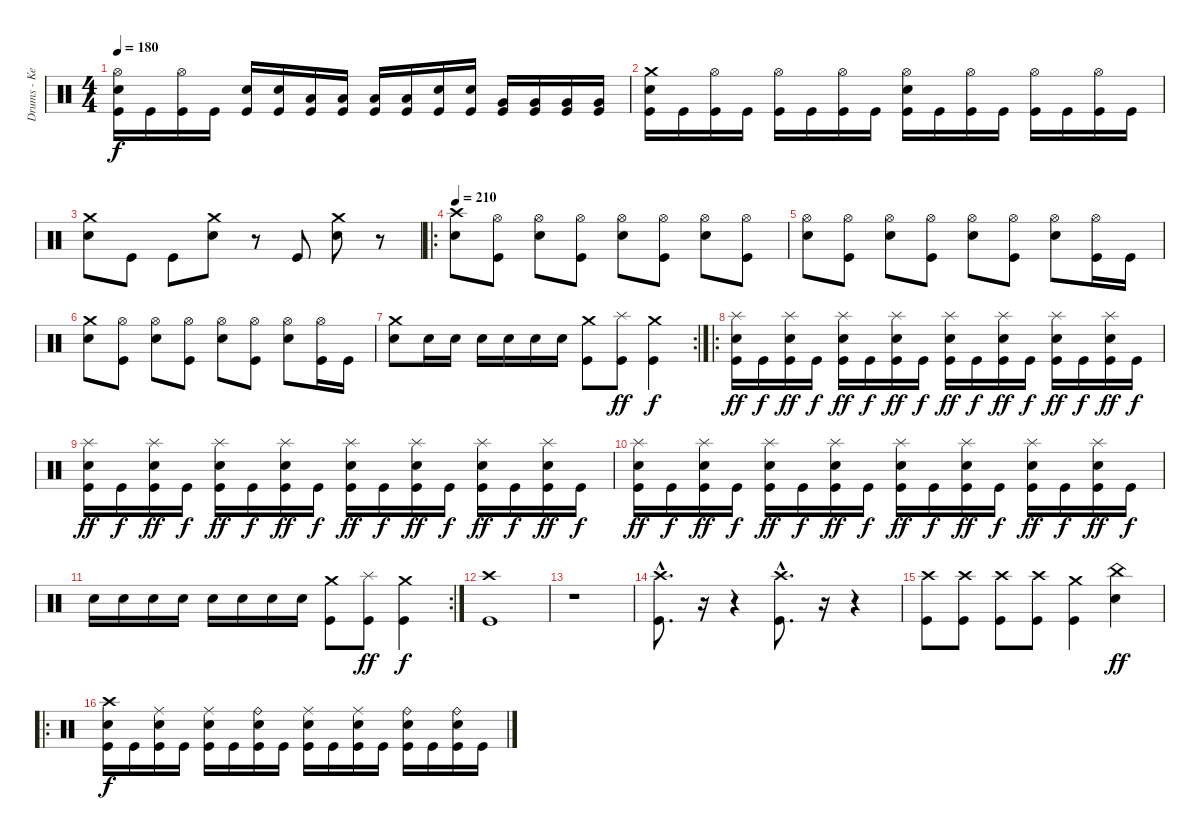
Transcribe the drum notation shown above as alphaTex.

\track ("Drums - Kevin" "Drums - Ke") {instrument percussion}
\staff {score}
\articulation defaults
\ts (4 4)
\tempo 180
\clef neutral
\ks c
("Hi-Hat (open)" "Electric Snare (hit)" "Kick (hit)").16{dy f} "Kick (hit)".16 ("Hi-Hat (open)" "Kick (hit)").16 "Kick (hit)".16 ("Electric Snare (hit)" "Kick (hit)").16 ("Electric Snare (hit)" "Kick (hit)").16 ("Low Tom (hit)" "Kick (hit)").16 ("Low Tom (hit)" "Kick (hit)").16 ("Low Tom (hit)" "Kick (hit)").16 ("Low Tom (hit)" "Kick (hit)").16 ("Electric Snare (hit)" "Kick (hit)").16 ("Electric Snare (hit)" "Kick (hit)").16 ("Very Low Tom (hit)" "Kick (hit)").16 ("Very Low Tom (hit)" "Kick (hit)").16 ("Very Low Tom (hit)" "Kick (hit)").16 ("Very Low Tom (hit)" "Kick (hit)").16 |
("Crash medium (hit)" "Electric Snare (hit)" "Kick (hit)").16 "Kick (hit)".16 ("Hi-Hat (open)" "Kick (hit)").16 "Kick (hit)".16 ("Hi-Hat (open)" "Kick (hit)").16 "Kick (hit)".16 ("Hi-Hat (open)" "Kick (hit)").16 "Kick (hit)".16 ("Hi-Hat (open)" "Electric Snare (hit)" "Kick (hit)").16 "Kick (hit)".16 ("Hi-Hat (open)" "Kick (hit)").16 "Kick (hit)".16 ("Hi-Hat (open)" "Kick (hit)").16 "Kick (hit)".16 ("Hi-Hat (open)" "Kick (hit)").16 "Kick (hit)".16 |
("Crash medium (hit)" "Electric Snare (hit)").8 "Kick (hit)".8 "Kick (hit)".8 ("Crash medium (hit)" "Electric Snare (hit)").8 r.8 "Kick (hit)".8 ("Crash medium (hit)" "Electric Snare (hit)").8 r.8 |
\ro
\tempo 210
("Crash high (hit)" "Electric Snare (hit)").8 ("Hi-Hat (open)" "Kick (hit)").8 ("Hi-Hat (open)" "Electric Snare (hit)").8 ("Hi-Hat (open)" "Kick (hit)").8 ("Hi-Hat (open)" "Electric Snare (hit)").8 ("Hi-Hat (open)" "Kick (hit)").8 ("Hi-Hat (open)" "Electric Snare (hit)").8 ("Hi-Hat (open)" "Kick (hit)").8 |
("Hi-Hat (open)" "Electric Snare (hit)").8 ("Hi-Hat (open)" "Kick (hit)").8 ("Hi-Hat (open)" "Electric Snare (hit)").8 ("Hi-Hat (open)" "Kick (hit)").8 ("Hi-Hat (open)" "Electric Snare (hit)").8 ("Hi-Hat (open)" "Kick (hit)").8 ("Hi-Hat (open)" "Electric Snare (hit)").8 ("Hi-Hat (open)" "Kick (hit)").16 "Kick (hit)".16 |
("Crash medium (hit)" "Electric Snare (hit)").8 ("Hi-Hat (open)" "Kick (hit)").8 ("Hi-Hat (open)" "Electric Snare (hit)").8 ("Hi-Hat (open)" "Kick (hit)").8 ("Hi-Hat (open)" "Electric Snare (hit)").8 ("Hi-Hat (open)" "Kick (hit)").8 ("Hi-Hat (open)" "Electric Snare (hit)").8 ("Hi-Hat (open)" "Kick (hit)").16 "Kick (hit)".16 |
\rc 2
("Crash medium (hit)" "Electric Snare (hit)").8 "Electric Snare (hit)".16 "Electric Snare (hit)".16 "Electric Snare (hit)".16 "Electric Snare (hit)".16 "Electric Snare (hit)".16 "Electric Snare (hit)".16 ("Crash medium (hit)" "Kick (hit)").8 ("Splash (hit)" "Kick (hit)").8{dy ff} ("Crash medium (hit)" "Kick (hit)").4{dy f} |
\ro
("Splash (hit)" "Electric Snare (hit)" "Kick (hit)").16{dy ff} "Kick (hit)".16{dy f} ("Splash (hit)" "Electric Snare (hit)" "Kick (hit)").16{dy ff} "Kick (hit)".16{dy f} ("Splash (hit)" "Electric Snare (hit)" "Kick (hit)").16{dy ff} "Kick (hit)".16{dy f} ("Splash (hit)" "Electric Snare (hit)" "Kick (hit)").16{dy ff} "Kick (hit)".16{dy f} ("Splash (hit)" "Electric Snare (hit)" "Kick (hit)").16{dy ff} "Kick (hit)".16{dy f} ("Splash (hit)" "Electric Snare (hit)" "Kick (hit)").16{dy ff} "Kick (hit)".16{dy f} ("Splash (hit)" "Electric Snare (hit)" "Kick (hit)").16{dy ff} "Kick (hit)".16{dy f} ("Splash (hit)" "Electric Snare (hit)" "Kick (hit)").16{dy ff} "Kick (hit)".16{dy f} |
("Splash (hit)" "Electric Snare (hit)" "Kick (hit)").16{dy ff} "Kick (hit)".16{dy f} ("Splash (hit)" "Electric Snare (hit)" "Kick (hit)").16{dy ff} "Kick (hit)".16{dy f} ("Splash (hit)" "Electric Snare (hit)" "Kick (hit)").16{dy ff} "Kick (hit)".16{dy f} ("Splash (hit)" "Electric Snare (hit)" "Kick (hit)").16{dy ff} "Kick (hit)".16{dy f} ("Splash (hit)" "Electric Snare (hit)" "Kick (hit)").16{dy ff} "Kick (hit)".16{dy f} ("Splash (hit)" "Electric Snare (hit)" "Kick (hit)").16{dy ff} "Kick (hit)".16{dy f} ("Splash (hit)" "Electric Snare (hit)" "Kick (hit)").16{dy ff} "Kick (hit)".16{dy f} ("Splash (hit)" "Electric Snare (hit)" "Kick (hit)").16{dy ff} "Kick (hit)".16{dy f} |
("Splash (hit)" "Electric Snare (hit)" "Kick (hit)").16{dy ff} "Kick (hit)".16{dy f} ("Splash (hit)" "Electric Snare (hit)" "Kick (hit)").16{dy ff} "Kick (hit)".16{dy f} ("Splash (hit)" "Electric Snare (hit)" "Kick (hit)").16{dy ff} "Kick (hit)".16{dy f} ("Splash (hit)" "Electric Snare (hit)" "Kick (hit)").16{dy ff} "Kick (hit)".16{dy f} ("Splash (hit)" "Electric Snare (hit)" "Kick (hit)").16{dy ff} "Kick (hit)".16{dy f} ("Splash (hit)" "Electric Snare (hit)" "Kick (hit)").16{dy ff} "Kick (hit)".16{dy f} ("Splash (hit)" "Electric Snare (hit)" "Kick (hit)").16{dy ff} "Kick (hit)".16{dy f} ("Splash (hit)" "Electric Snare (hit)" "Kick (hit)").16{dy ff} "Kick (hit)".16{dy f} |
\rc 2 "Electric Snare (hit)".16 "Electric Snare (hit)".16 "Electric Snare (hit)".16 "Electric Snare (hit)".16 "Electric Snare (hit)".16 "Electric Snare (hit)".16 "Electric Snare (hit)".16 "Electric Snare (hit)".16
("Crash medium (hit)" "Kick (hit)").8 ("Splash (hit)" "Kick (hit)").8{dy ff} ("Crash medium (hit)" "Kick (hit)").4{dy f} |
("Crash high (hit)" "Kick (hit)").1 |
r.1 |
("Crash high (hit)"{hac} "Kick (hit)"{hac}).8{d} r.16{volume 0} r.4 ("Crash high (hit)"{hac} "Kick (hit)"{hac}).8{d volume 16} r.16{volume 0} r.4 |
("Crash high (hit)" "Kick (hit)").8{volume 16} ("Crash high (hit)" "Kick (hit)").8 ("Crash high (hit)" "Kick (hit)").8 ("Crash high (hit)" "Kick (hit)").8 ("Crash medium (hit)" "Kick (hit)").4 ("China (hit)" "Electric Snare (hit)").4{dy ff} |
\ro
("Crash high (hit)" "Electric Snare (hit)" "Kick (hit)").16{dy f} "Kick (hit)".16 ("Ride (middle)" "Electric Snare (hit)" "Kick (hit)").16 "Kick (hit)".16 ("Ride (middle)" "Electric Snare (hit)" "Kick (hit)").16 "Kick (hit)".16 ("Ride (bell)" "Electric Snare (hit)" "Kick (hit)").16 "Kick (hit)".16 ("Ride (middle)" "Electric Snare (hit)" "Kick (hit)").16 "Kick (hit)".16 ("Ride (middle)" "Electric Snare (hit)" "Kick (hit)").16 "Kick (hit)".16 ("Ride (bell)" "Electric Snare (hit)" "Kick (hit)").16 "Kick (hit)".16 ("Ride (bell)" "Electric Snare (hit)" "Kick (hit)").16 "Kick (hit)".16
